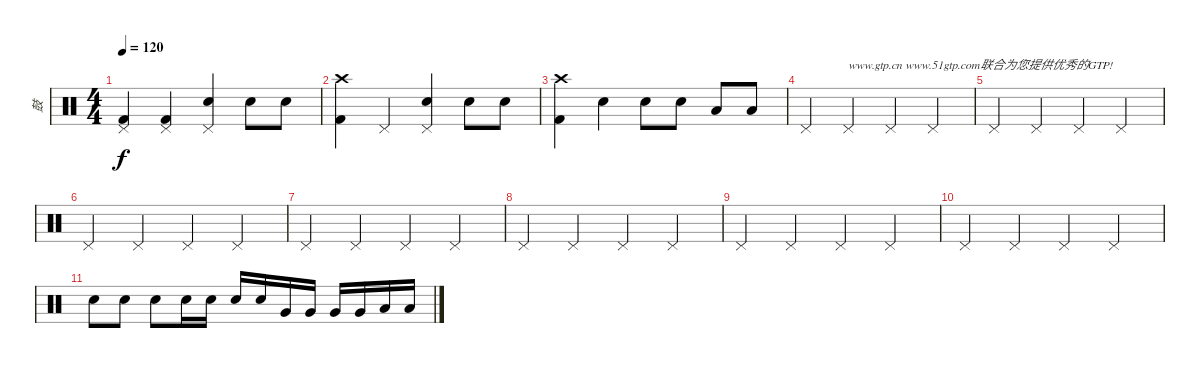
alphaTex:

\track ("鼓" "鼓") {instrument percussion}
\staff {score}
\articulation defaults
\ts (4 4)
\tempo 120
\clef neutral
\ks c
("Pedal Hi-Hat (hit)" "Kick (hit) 2").4{dy f} ("Pedal Hi-Hat (hit)" "Kick (hit) 2").4 ("Pedal Hi-Hat (hit)" "Electric Snare (hit)").4 "Electric Snare (hit)".8 "Electric Snare (hit)".8 |
("Crash high (hit)" "Kick (hit) 2").4 "Pedal Hi-Hat (hit)".4 ("Pedal Hi-Hat (hit)" "Electric Snare (hit)").4 "Electric Snare (hit)".8 "Electric Snare (hit)".8 |
("Crash high (hit)" "Kick (hit) 2").4 "Electric Snare (hit)".4 "Electric Snare (hit)".8 "Electric Snare (hit)".8 "Low Floor Tom (hit)".8 "Low Floor Tom (hit)".8 |
"Pedal Hi-Hat (hit)".4 "Pedal Hi-Hat (hit)".4{txt "www.gtp.cn www.51gtp.com联合为您提供优秀的GTP!"} "Pedal Hi-Hat (hit)".4 "Pedal Hi-Hat (hit)".4 |
"Pedal Hi-Hat (hit)".4 "Pedal Hi-Hat (hit)".4 "Pedal Hi-Hat (hit)".4 "Pedal Hi-Hat (hit)".4 |
"Pedal Hi-Hat (hit)".4 "Pedal Hi-Hat (hit)".4 "Pedal Hi-Hat (hit)".4 "Pedal Hi-Hat (hit)".4 |
"Pedal Hi-Hat (hit)".4 "Pedal Hi-Hat (hit)".4 "Pedal Hi-Hat (hit)".4 "Pedal Hi-Hat (hit)".4 |
"Pedal Hi-Hat (hit)".4 "Pedal Hi-Hat (hit)".4 "Pedal Hi-Hat (hit)".4 "Pedal Hi-Hat (hit)".4 |
"Pedal Hi-Hat (hit)".4 "Pedal Hi-Hat (hit)".4 "Pedal Hi-Hat (hit)".4 "Pedal Hi-Hat (hit)".4 |
"Pedal Hi-Hat (hit)".4 "Pedal Hi-Hat (hit)".4 "Pedal Hi-Hat (hit)".4 "Pedal Hi-Hat (hit)".4 |
"Electric Snare (hit)".8 "Electric Snare (hit)".8 "Electric Snare (hit)".8 "Electric Snare (hit)".16 "Electric Snare (hit)".16 "Electric Snare (hit)".16 "Electric Snare (hit)".16 "Very Low Tom (hit)".16 "Very Low Tom (hit)".16 "Very Low Tom (hit)".16 "Very Low Tom (hit)".16 "Low Floor Tom (hit)".16 "Low Floor Tom (hit)".16
